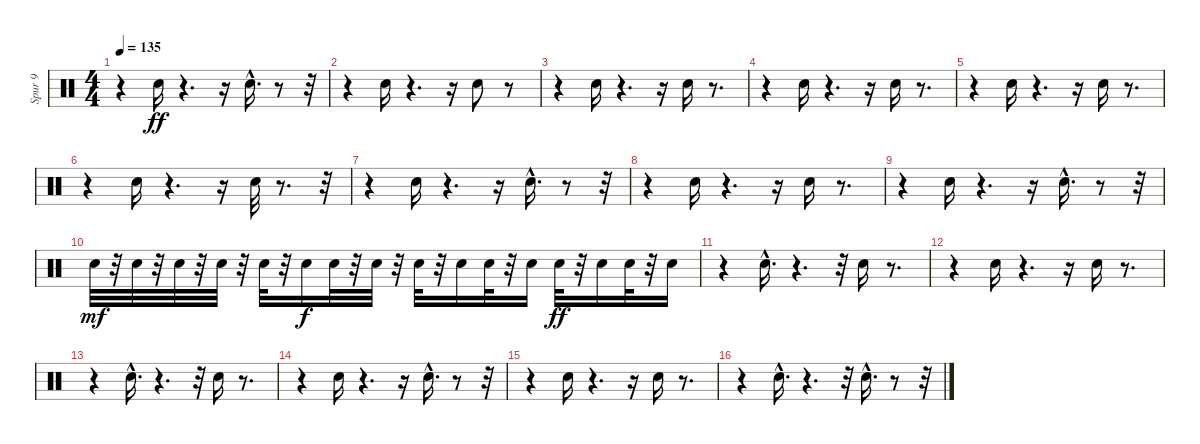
\track ("Spur 9" "Spur 9") {instrument percussion}
\staff {score}
\articulation defaults
\ts (4 4)
\tempo 135
\clef neutral
\ks c
r.4{dy ff} "Electric Snare (hit)".16 r.4{d} r.16 "Electric Snare (hit)"{hac}.16{d} r.8 r.32 |
r.4 "Electric Snare (hit)".16 r.4{d} r.16 "Electric Snare (hit)".8 r.8 |
r.4 "Electric Snare (hit)".16 r.4{d} r.16 "Electric Snare (hit)".16 r.8{d} |
r.4 "Electric Snare (hit)".16 r.4{d} r.16 "Electric Snare (hit)".16 r.8{d} |
r.4 "Electric Snare (hit)".16 r.4{d} r.16 "Electric Snare (hit)".16 r.8{d} |
r.4 "Electric Snare (hit)".16 r.4{d} r.16 "Electric Snare (hit)".32 r.8{d} r.32 |
r.4 "Electric Snare (hit)".16 r.4{d} r.16 "Electric Snare (hit)"{hac}.16{d} r.8 r.32 |
r.4 "Electric Snare (hit)".16 r.4{d} r.16 "Electric Snare (hit)".16 r.8{d} |
r.4 "Electric Snare (hit)".16 r.4{d} r.16 "Electric Snare (hit)"{hac}.16{d} r.8 r.32 |
"Electric Snare (hit)".32{dy mf} r.32 "Electric Snare (hit)".32 r.32 "Electric Snare (hit)".32 r.32 "Electric Snare (hit)".32 r.32 "Electric Snare (hit)".32 r.32 "Electric Snare (hit)".16{dy f} "Electric Snare (hit)".32 r.32 "Electric Snare (hit)".32 r.32 "Electric Snare (hit)".32 r.32 "Electric Snare (hit)".16 "Electric Snare (hit)".32 r.32 "Electric Snare (hit)".16 "Electric Snare (hit)".32{dy ff} r.32 "Electric Snare (hit)".16 "Electric Snare (hit)".32 r.32 "Electric Snare (hit)".16 |
r.4 "Electric Snare (hit)"{hac}.16{d} r.4{d} r.32 "Electric Snare (hit)".16 r.8{d} |
r.4 "Electric Snare (hit)".16 r.4{d} r.16 "Electric Snare (hit)".16 r.8{d} |
r.4 "Electric Snare (hit)"{hac}.16{d} r.4{d} r.32 "Electric Snare (hit)".16 r.8{d} |
r.4 "Electric Snare (hit)".16 r.4{d} r.16 "Electric Snare (hit)"{hac}.16{d} r.8 r.32 |
r.4 "Electric Snare (hit)".16 r.4{d} r.16 "Electric Snare (hit)".16 r.8{d} |
r.4 "Electric Snare (hit)"{hac}.16{d} r.4{d} r.32 "Electric Snare (hit)"{hac}.16{d} r.8 r.32
